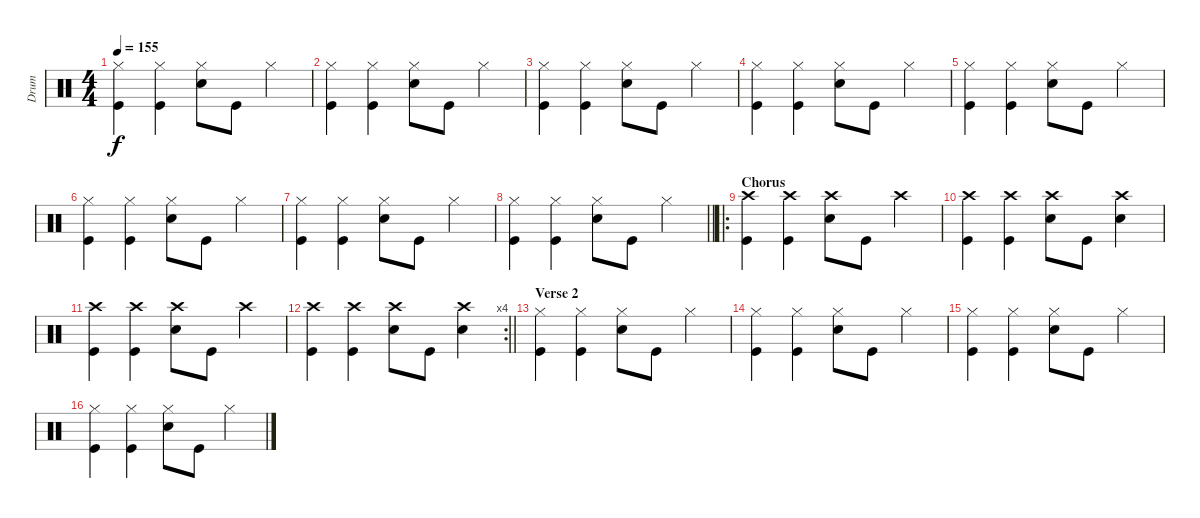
\track ("Drum" "Drum") {instrument percussion}
\staff {score}
\articulation defaults
\ts (4 4)
\tempo 155
\clef neutral
\ks c
("Hi-Hat (closed)" "Kick (hit)").4{dy f} ("Hi-Hat (closed)" "Kick (hit)").4 ("Hi-Hat (closed)" "Snare (hit) 2").8 "Kick (hit)".8 "Hi-Hat (closed)".4 |
("Hi-Hat (closed)" "Kick (hit)").4 ("Hi-Hat (closed)" "Kick (hit)").4 ("Hi-Hat (closed)" "Snare (hit) 2").8 "Kick (hit)".8 "Hi-Hat (closed)".4 |
("Hi-Hat (closed)" "Kick (hit)").4 ("Hi-Hat (closed)" "Kick (hit)").4 ("Hi-Hat (closed)" "Snare (hit) 2").8 "Kick (hit)".8 "Hi-Hat (closed)".4 |
("Hi-Hat (closed)" "Kick (hit)").4 ("Hi-Hat (closed)" "Kick (hit)").4 ("Hi-Hat (closed)" "Snare (hit) 2").8 "Kick (hit)".8 "Hi-Hat (closed)".4 |
("Hi-Hat (closed)" "Kick (hit)").4 ("Hi-Hat (closed)" "Kick (hit)").4 ("Hi-Hat (closed)" "Snare (hit) 2").8 "Kick (hit)".8 "Hi-Hat (closed)".4 |
("Hi-Hat (closed)" "Kick (hit)").4 ("Hi-Hat (closed)" "Kick (hit)").4 ("Hi-Hat (closed)" "Snare (hit) 2").8 "Kick (hit)".8 "Hi-Hat (closed)".4 |
("Hi-Hat (closed)" "Kick (hit)").4 ("Hi-Hat (closed)" "Kick (hit)").4 ("Hi-Hat (closed)" "Snare (hit) 2").8 "Kick (hit)".8 "Hi-Hat (closed)".4 |
\barLineRight lightlight
("Hi-Hat (closed)" "Kick (hit)").4 ("Hi-Hat (closed)" "Kick (hit)").4 ("Hi-Hat (closed)" "Snare (hit) 2").8 "Kick (hit)".8 "Hi-Hat (closed)".4 |
\ro
\section ("" "Chorus")
("Crash high (hit)" "Kick (hit)").4 ("Crash high (hit)" "Kick (hit)").4 ("Crash high (hit)" "Snare (hit) 2").8 "Kick (hit)".8 "Crash high (hit)".4 |
("Crash high (hit)" "Kick (hit)").4 ("Crash high (hit)" "Kick (hit)").4 ("Crash high (hit)" "Snare (hit) 2").8 "Kick (hit)".8 ("Crash high (hit)" "Snare (hit) 2").4 |
("Crash high (hit)" "Kick (hit)").4 ("Crash high (hit)" "Kick (hit)").4 ("Crash high (hit)" "Snare (hit) 2").8 "Kick (hit)".8 "Crash high (hit)".4 |
\rc 4
\barLineRight lightlight
("Crash high (hit)" "Kick (hit)").4 ("Crash high (hit)" "Kick (hit)").4 ("Crash high (hit)" "Snare (hit) 2").8 "Kick (hit)".8 ("Crash high (hit)" "Snare (hit) 2").4 |
\section ("" "Verse 2")
("Hi-Hat (closed)" "Kick (hit)").4 ("Hi-Hat (closed)" "Kick (hit)").4 ("Hi-Hat (closed)" "Snare (hit) 2").8 "Kick (hit)".8 "Hi-Hat (closed)".4 |
("Hi-Hat (closed)" "Kick (hit)").4 ("Hi-Hat (closed)" "Kick (hit)").4 ("Hi-Hat (closed)" "Snare (hit) 2").8 "Kick (hit)".8 "Hi-Hat (closed)".4 |
("Hi-Hat (closed)" "Kick (hit)").4 ("Hi-Hat (closed)" "Kick (hit)").4 ("Hi-Hat (closed)" "Snare (hit) 2").8 "Kick (hit)".8 "Hi-Hat (closed)".4 |
("Hi-Hat (closed)" "Kick (hit)").4 ("Hi-Hat (closed)" "Kick (hit)").4 ("Hi-Hat (closed)" "Snare (hit) 2").8 "Kick (hit)".8 "Hi-Hat (closed)".4
